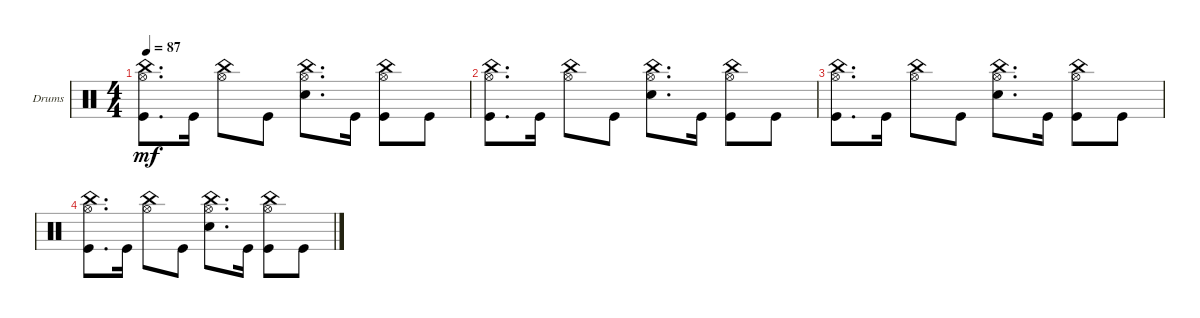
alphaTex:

\defaultSystemsLayout 4
\bracketExtendMode groupsimilarinstruments
\firstSystemTrackNameOrientation horizontal
\otherSystemsTrackNameOrientation horizontal
\track ("Drumkit" "Drums") {instrument percussion}
\staff {score}
\articulation defaults
\ts (4 4)
\tempo 87
\clef neutral
\ks c
("Kick (hit)" "China (hit)" "Hi-Hat (open)").8{d dy mf} "Kick (hit)".16 ("China (hit)" "Hi-Hat (open)").8 "Kick (hit)".8 ("Snare (hit) 2" "China (hit)" "Hi-Hat (open)").8{d} "Kick (hit)".16 ("Kick (hit)" "China (hit)" "Hi-Hat (open)").8 "Kick (hit)".8 |
("Kick (hit)" "China (hit)" "Hi-Hat (open)").8{d} "Kick (hit)".16 ("China (hit)" "Hi-Hat (open)").8 "Kick (hit)".8 ("Snare (hit) 2" "China (hit)" "Hi-Hat (open)").8{d} "Kick (hit)".16 ("Kick (hit)" "China (hit)" "Hi-Hat (open)").8 "Kick (hit)".8 |
("Kick (hit)" "China (hit)" "Hi-Hat (open)").8{d} "Kick (hit)".16 ("China (hit)" "Hi-Hat (open)").8 "Kick (hit)".8 ("Snare (hit) 2" "China (hit)" "Hi-Hat (open)").8{d} "Kick (hit)".16 ("Kick (hit)" "China (hit)" "Hi-Hat (open)").8 "Kick (hit)".8 |
("Kick (hit)" "China (hit)" "Hi-Hat (open)").8{d} "Kick (hit)".16 ("China (hit)" "Hi-Hat (open)").8 "Kick (hit)".8 ("Snare (hit) 2" "China (hit)" "Hi-Hat (open)").8{d} "Kick (hit)".16 ("Kick (hit)" "China (hit)" "Hi-Hat (open)").8 "Kick (hit)".8
